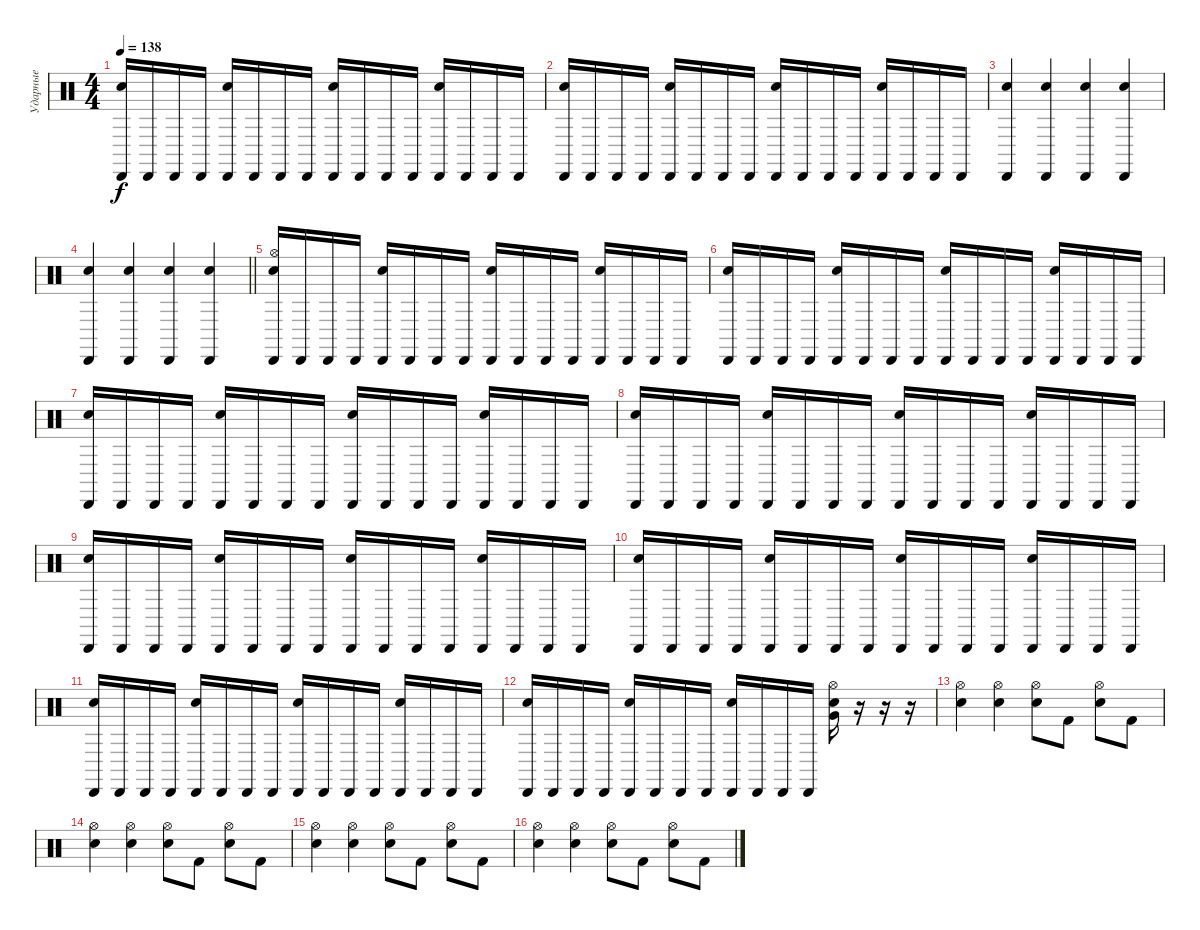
\track ("Ударные" "Ударные") {instrument percussion}
\staff {score}
\articulation defaults
\ts (4 4)
\tempo 138
\clef neutral
\ks c
("Cabasa (hit)" "Hand Clap (hit)").16{dy f} "Cabasa (hit)".16 "Cabasa (hit)".16 "Cabasa (hit)".16 ("Cabasa (hit)" "Hand Clap (hit)").16 "Cabasa (hit)".16 "Cabasa (hit)".16 "Cabasa (hit)".16 ("Cabasa (hit)" "Hand Clap (hit)").16 "Cabasa (hit)".16 "Cabasa (hit)".16 "Cabasa (hit)".16 ("Cabasa (hit)" "Hand Clap (hit)").16 "Cabasa (hit)".16 "Cabasa (hit)".16 "Cabasa (hit)".16 |
("Cabasa (hit)" "Hand Clap (hit)").16 "Cabasa (hit)".16 "Cabasa (hit)".16 "Cabasa (hit)".16 ("Cabasa (hit)" "Hand Clap (hit)").16 "Cabasa (hit)".16 "Cabasa (hit)".16 "Cabasa (hit)".16 ("Cabasa (hit)" "Hand Clap (hit)").16 "Cabasa (hit)".16 "Cabasa (hit)".16 "Cabasa (hit)".16 ("Cabasa (hit)" "Hand Clap (hit)").16 "Cabasa (hit)".16 "Cabasa (hit)".16 "Cabasa (hit)".16 |
("Cabasa (hit)" "Hand Clap (hit)").4 ("Cabasa (hit)" "Hand Clap (hit)").4 ("Cabasa (hit)" "Hand Clap (hit)").4 ("Cabasa (hit)" "Hand Clap (hit)").4 |
\barLineRight lightlight
("Cabasa (hit)" "Hand Clap (hit)").4 ("Cabasa (hit)" "Hand Clap (hit)").4 ("Cabasa (hit)" "Hand Clap (hit)").4 ("Cabasa (hit)" "Hand Clap (hit)").4 |
("Hi-Hat (open)" "Cabasa (hit)" "Hand Clap (hit)").16 "Cabasa (hit)".16 "Cabasa (hit)".16 "Cabasa (hit)".16 ("Cabasa (hit)" "Hand Clap (hit)").16 "Cabasa (hit)".16 "Cabasa (hit)".16 "Cabasa (hit)".16 ("Cabasa (hit)" "Hand Clap (hit)").16 "Cabasa (hit)".16 "Cabasa (hit)".16 "Cabasa (hit)".16 ("Cabasa (hit)" "Hand Clap (hit)").16 "Cabasa (hit)".16 "Cabasa (hit)".16 "Cabasa (hit)".16 |
("Cabasa (hit)" "Hand Clap (hit)").16 "Cabasa (hit)".16 "Cabasa (hit)".16 "Cabasa (hit)".16 ("Cabasa (hit)" "Hand Clap (hit)").16 "Cabasa (hit)".16 "Cabasa (hit)".16 "Cabasa (hit)".16 ("Cabasa (hit)" "Hand Clap (hit)").16 "Cabasa (hit)".16 "Cabasa (hit)".16 "Cabasa (hit)".16 ("Cabasa (hit)" "Hand Clap (hit)").16 "Cabasa (hit)".16 "Cabasa (hit)".16 "Cabasa (hit)".16 |
("Cabasa (hit)" "Hand Clap (hit)").16 "Cabasa (hit)".16 "Cabasa (hit)".16 "Cabasa (hit)".16 ("Cabasa (hit)" "Hand Clap (hit)").16 "Cabasa (hit)".16 "Cabasa (hit)".16 "Cabasa (hit)".16 ("Cabasa (hit)" "Hand Clap (hit)").16 "Cabasa (hit)".16 "Cabasa (hit)".16 "Cabasa (hit)".16 ("Cabasa (hit)" "Hand Clap (hit)").16 "Cabasa (hit)".16 "Cabasa (hit)".16 "Cabasa (hit)".16 |
("Cabasa (hit)" "Hand Clap (hit)").16 "Cabasa (hit)".16 "Cabasa (hit)".16 "Cabasa (hit)".16 ("Cabasa (hit)" "Hand Clap (hit)").16 "Cabasa (hit)".16 "Cabasa (hit)".16 "Cabasa (hit)".16 ("Cabasa (hit)" "Hand Clap (hit)").16 "Cabasa (hit)".16 "Cabasa (hit)".16 "Cabasa (hit)".16 ("Cabasa (hit)" "Hand Clap (hit)").16 "Cabasa (hit)".16 "Cabasa (hit)".16 "Cabasa (hit)".16 |
("Cabasa (hit)" "Hand Clap (hit)").16 "Cabasa (hit)".16 "Cabasa (hit)".16 "Cabasa (hit)".16 ("Cabasa (hit)" "Hand Clap (hit)").16 "Cabasa (hit)".16 "Cabasa (hit)".16 "Cabasa (hit)".16 ("Cabasa (hit)" "Hand Clap (hit)").16 "Cabasa (hit)".16 "Cabasa (hit)".16 "Cabasa (hit)".16 ("Cabasa (hit)" "Hand Clap (hit)").16 "Cabasa (hit)".16 "Cabasa (hit)".16 "Cabasa (hit)".16 |
("Cabasa (hit)" "Hand Clap (hit)").16 "Cabasa (hit)".16 "Cabasa (hit)".16 "Cabasa (hit)".16 ("Cabasa (hit)" "Hand Clap (hit)").16 "Cabasa (hit)".16 "Cabasa (hit)".16 "Cabasa (hit)".16 ("Cabasa (hit)" "Hand Clap (hit)").16 "Cabasa (hit)".16 "Cabasa (hit)".16 "Cabasa (hit)".16 ("Cabasa (hit)" "Hand Clap (hit)").16 "Cabasa (hit)".16 "Cabasa (hit)".16 "Cabasa (hit)".16 |
("Cabasa (hit)" "Hand Clap (hit)").16 "Cabasa (hit)".16 "Cabasa (hit)".16 "Cabasa (hit)".16 ("Cabasa (hit)" "Hand Clap (hit)").16 "Cabasa (hit)".16 "Cabasa (hit)".16 "Cabasa (hit)".16 ("Cabasa (hit)" "Hand Clap (hit)").16 "Cabasa (hit)".16 "Cabasa (hit)".16 "Cabasa (hit)".16 ("Cabasa (hit)" "Hand Clap (hit)").16 "Cabasa (hit)".16 "Cabasa (hit)".16 "Cabasa (hit)".16 |
("Cabasa (hit)" "Hand Clap (hit)").16 "Cabasa (hit)".16 "Cabasa (hit)".16 "Cabasa (hit)".16 ("Cabasa (hit)" "Hand Clap (hit)").16 "Cabasa (hit)".16 "Cabasa (hit)".16 "Cabasa (hit)".16 ("Cabasa (hit)" "Hand Clap (hit)").16 "Cabasa (hit)".16 "Cabasa (hit)".16 "Cabasa (hit)".16 ("Snare (hit) 2" "Hi-Hat (open)" "Very Low Tom (hit)").16 r.16 r.16 r.16 |
("Snare (hit) 2" "Hi-Hat (open)").4 ("Snare (hit) 2" "Hi-Hat (open)").4 ("Snare (hit) 2" "Hi-Hat (open)").8 "Kick (hit) 2".8 ("Hi-Hat (open)" "Snare (hit) 2").8 "Kick (hit) 2".8 |
("Snare (hit) 2" "Hi-Hat (open)").4 ("Snare (hit) 2" "Hi-Hat (open)").4 ("Snare (hit) 2" "Hi-Hat (open)").8 "Kick (hit) 2".8 ("Hi-Hat (open)" "Snare (hit) 2").8 "Kick (hit) 2".8 |
("Snare (hit) 2" "Hi-Hat (open)").4 ("Snare (hit) 2" "Hi-Hat (open)").4 ("Snare (hit) 2" "Hi-Hat (open)").8 "Kick (hit) 2".8 ("Hi-Hat (open)" "Snare (hit) 2").8 "Kick (hit) 2".8 |
("Snare (hit) 2" "Hi-Hat (open)").4 ("Snare (hit) 2" "Hi-Hat (open)").4 ("Snare (hit) 2" "Hi-Hat (open)").8 "Kick (hit) 2".8 ("Hi-Hat (open)" "Snare (hit) 2").8 "Kick (hit) 2".8
